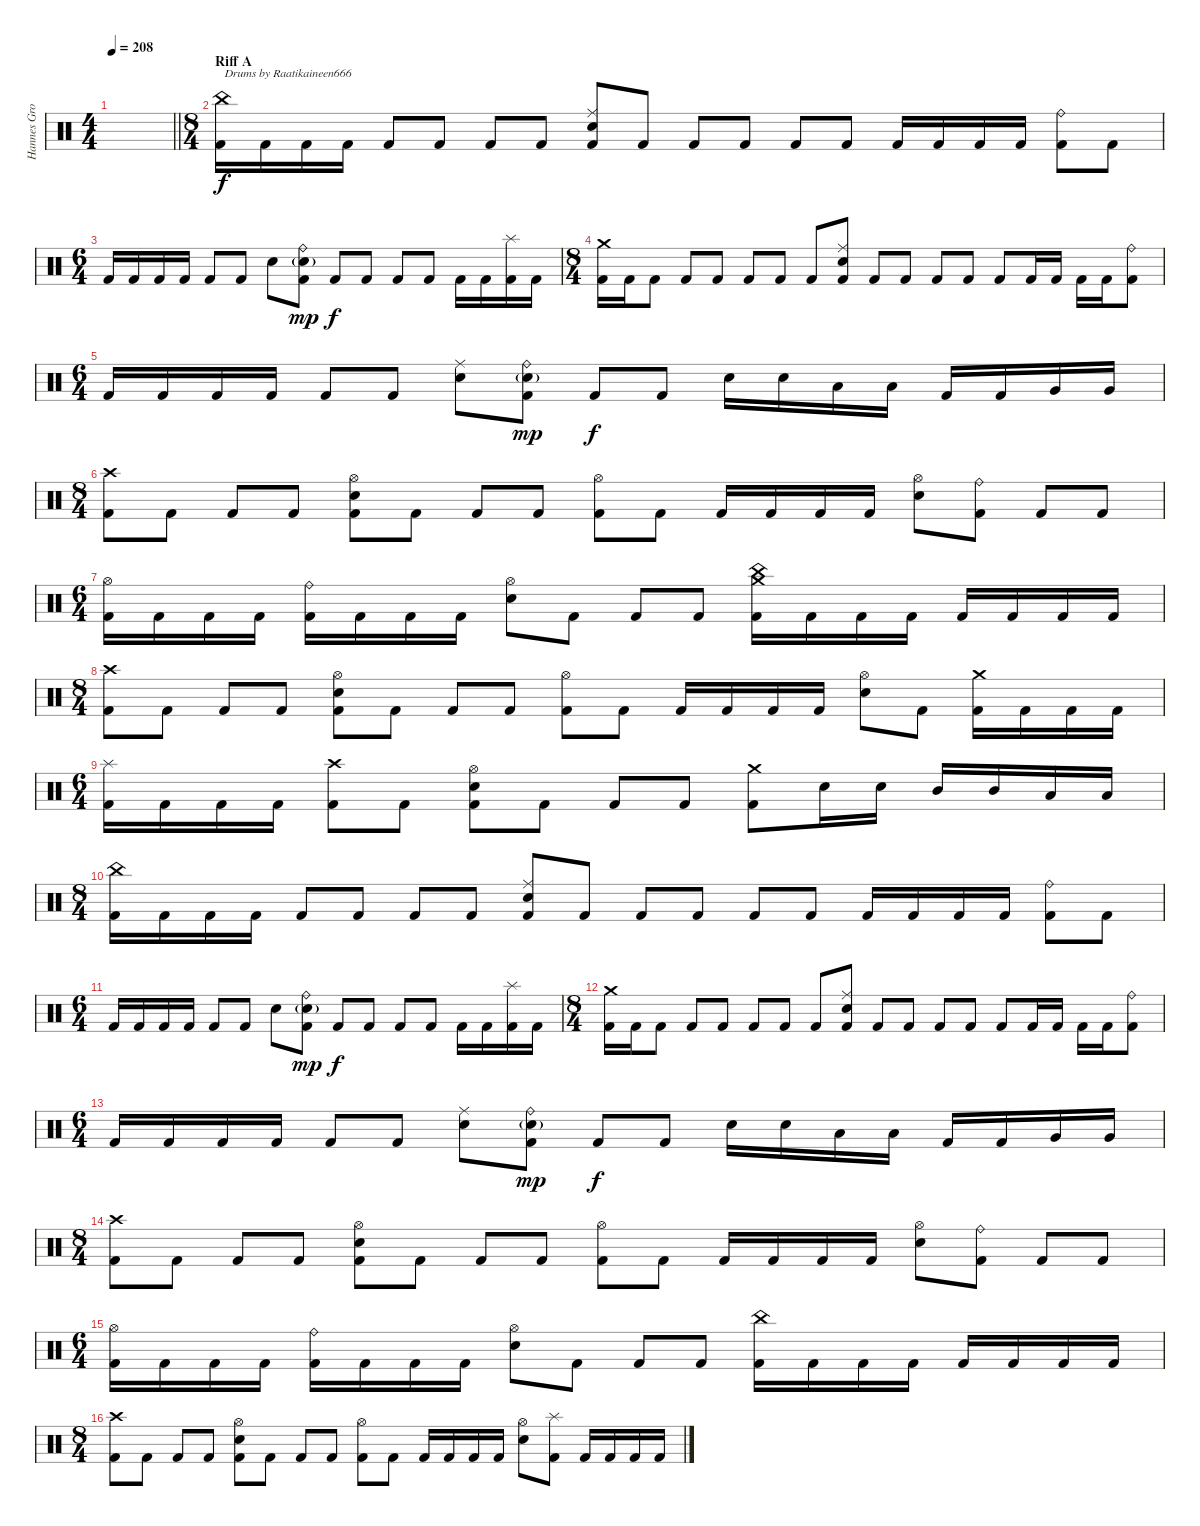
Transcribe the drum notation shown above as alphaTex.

\track ("Hannes Grossmann" "Hannes Gro") {instrument percussion}
\staff {score}
\articulation defaults
\ts (4 4)
\tempo 208
\clef neutral
\barLineRight lightlight
\ks c
|
\ts (8 4)
\section ("" "Riff A")
("China (hit)" "Kick (hit) 2").16{txt "Drums by Raatikaineen666"} "Kick (hit) 2".16 "Kick (hit) 2".16 "Kick (hit) 2".16 "Kick (hit) 2".8 "Kick (hit) 2".8 "Kick (hit) 2".8 "Kick (hit) 2".8 ("Ride (middle)" "Electric Snare (hit)" "Kick (hit) 2").8 "Kick (hit) 2".8 "Kick (hit) 2".8 "Kick (hit) 2".8 "Kick (hit) 2".8 "Kick (hit) 2".8 "Kick (hit) 2".16 "Kick (hit) 2".16 "Kick (hit) 2".16 "Kick (hit) 2".16 ("Ride (bell)" "Kick (hit) 2").8 "Kick (hit) 2".8 |
\ts (6 4)
"Kick (hit) 2".16 "Kick (hit) 2".16 "Kick (hit) 2".16 "Kick (hit) 2".16 "Kick (hit) 2".8 "Kick (hit) 2".8 "Electric Snare (hit)".8 ("Ride (bell)" "Electric Snare (hit)"{g} "Kick (hit) 2").8{dy mp} "Kick (hit) 2".8{dy f} "Kick (hit) 2".8 "Kick (hit) 2".8 "Kick (hit) 2".8 "Kick (hit) 2".16 "Kick (hit) 2".16 ("Splash (hit)" "Kick (hit) 2").16 "Kick (hit) 2".16 |
\ts (8 4)
("Crash medium (hit)" "Kick (hit) 2").16 "Kick (hit) 2".16 "Kick (hit) 2".8 "Kick (hit) 2".8 "Kick (hit) 2".8 "Kick (hit) 2".8 "Kick (hit) 2".8 "Kick (hit) 2".8 ("Ride (middle)" "Electric Snare (hit)" "Kick (hit) 2").8 "Kick (hit) 2".8 "Kick (hit) 2".8 "Kick (hit) 2".8 "Kick (hit) 2".8 "Kick (hit) 2".8 "Kick (hit) 2".16 "Kick (hit) 2".16 "Kick (hit) 2".16 "Kick (hit) 2".16 ("Ride (bell)" "Kick (hit) 2").8 |
\ts (6 4)
"Kick (hit) 2".16 "Kick (hit) 2".16 "Kick (hit) 2".16 "Kick (hit) 2".16 "Kick (hit) 2".8 "Kick (hit) 2".8 ("Ride (middle)" "Electric Snare (hit)").8 ("Ride (bell)" "Electric Snare (hit)"{g} "Kick (hit) 2").8{dy mp} "Kick (hit) 2".8{dy f} "Kick (hit) 2".8 "Electric Snare (hit)".16 "Electric Snare (hit)".16 "Low Tom (hit)".16 "Low Tom (hit)".16 "Kick (hit) 2".16 "Kick (hit) 2".16 "Very Low Tom (hit)".16 "Very Low Tom (hit)".16 |
\ts (8 4)
("Crash high (hit)" "Kick (hit) 2").8 "Kick (hit) 2".8 "Kick (hit) 2".8 "Kick (hit) 2".8 ("Hi-Hat (open)" "Electric Snare (hit)" "Kick (hit) 2").8 "Kick (hit) 2".8 "Kick (hit) 2".8 "Kick (hit) 2".8 ("Hi-Hat (open)" "Kick (hit) 2").8 "Kick (hit) 2".8 "Kick (hit) 2".16 "Kick (hit) 2".16 "Kick (hit) 2".16 "Kick (hit) 2".16 ("Hi-Hat (open)" "Electric Snare (hit)").8 ("Ride (bell)" "Kick (hit) 2").8 "Kick (hit) 2".8 "Kick (hit) 2".8 |
\ts (6 4)
("Hi-Hat (open)" "Kick (hit) 2").16 "Kick (hit) 2".16 "Kick (hit) 2".16 "Kick (hit) 2".16 ("Ride (bell)" "Kick (hit) 2").16 "Kick (hit) 2".16 "Kick (hit) 2".16 "Kick (hit) 2".16 ("Hi-Hat (open)" "Electric Snare (hit)").8 "Kick (hit) 2".8 "Kick (hit) 2".8 "Kick (hit) 2".8 ("China (hit)" "Crash medium (hit)" "Kick (hit) 2").16 "Kick (hit) 2".16 "Kick (hit) 2".16 "Kick (hit) 2".16 "Kick (hit) 2".16 "Kick (hit) 2".16 "Kick (hit) 2".16 "Kick (hit) 2".16 |
\ts (8 4)
("Crash high (hit)" "Kick (hit) 2").8 "Kick (hit) 2".8 "Kick (hit) 2".8 "Kick (hit) 2".8 ("Hi-Hat (open)" "Electric Snare (hit)" "Kick (hit) 2").8 "Kick (hit) 2".8 "Kick (hit) 2".8 "Kick (hit) 2".8 ("Hi-Hat (open)" "Kick (hit) 2").8 "Kick (hit) 2".8 "Kick (hit) 2".16 "Kick (hit) 2".16 "Kick (hit) 2".16 "Kick (hit) 2".16 ("Hi-Hat (open)" "Electric Snare (hit)").8 "Kick (hit) 2".8 ("Crash medium (hit)" "Kick (hit) 2").16 "Kick (hit) 2".16 "Kick (hit) 2".16 "Kick (hit) 2".16 |
\ts (6 4)
("Splash (hit)" "Kick (hit) 2").16 "Kick (hit) 2".16 "Kick (hit) 2".16 "Kick (hit) 2".16 ("Crash high (hit)" "Kick (hit) 2").8 "Kick (hit) 2".8 ("Hi-Hat (open)" "Electric Snare (hit)" "Kick (hit) 2").8 "Kick (hit) 2".8 "Kick (hit) 2".8 "Kick (hit) 2".8 ("Crash medium (hit)" "Kick (hit) 2").8 "Electric Snare (hit)".16 "Electric Snare (hit)".16 "Mid Tom (hit)".16 "Mid Tom (hit)".16 "Low Tom (hit)".16 "Low Tom (hit)".16 |
\ts (8 4)
("China (hit)" "Kick (hit) 2").16 "Kick (hit) 2".16 "Kick (hit) 2".16 "Kick (hit) 2".16 "Kick (hit) 2".8 "Kick (hit) 2".8 "Kick (hit) 2".8 "Kick (hit) 2".8 ("Ride (middle)" "Electric Snare (hit)" "Kick (hit) 2").8 "Kick (hit) 2".8 "Kick (hit) 2".8 "Kick (hit) 2".8 "Kick (hit) 2".8 "Kick (hit) 2".8 "Kick (hit) 2".16 "Kick (hit) 2".16 "Kick (hit) 2".16 "Kick (hit) 2".16 ("Ride (bell)" "Kick (hit) 2").8 "Kick (hit) 2".8 |
\ts (6 4)
"Kick (hit) 2".16 "Kick (hit) 2".16 "Kick (hit) 2".16 "Kick (hit) 2".16 "Kick (hit) 2".8 "Kick (hit) 2".8 "Electric Snare (hit)".8 ("Ride (bell)" "Electric Snare (hit)"{g} "Kick (hit) 2").8{dy mp} "Kick (hit) 2".8{dy f} "Kick (hit) 2".8 "Kick (hit) 2".8 "Kick (hit) 2".8 "Kick (hit) 2".16 "Kick (hit) 2".16 ("Splash (hit)" "Kick (hit) 2").16 "Kick (hit) 2".16 |
\ts (8 4)
("Crash medium (hit)" "Kick (hit) 2").16 "Kick (hit) 2".16 "Kick (hit) 2".8 "Kick (hit) 2".8 "Kick (hit) 2".8 "Kick (hit) 2".8 "Kick (hit) 2".8 "Kick (hit) 2".8 ("Ride (middle)" "Electric Snare (hit)" "Kick (hit) 2").8 "Kick (hit) 2".8 "Kick (hit) 2".8 "Kick (hit) 2".8 "Kick (hit) 2".8 "Kick (hit) 2".8 "Kick (hit) 2".16 "Kick (hit) 2".16 "Kick (hit) 2".16 "Kick (hit) 2".16 ("Ride (bell)" "Kick (hit) 2").8 |
\ts (6 4)
"Kick (hit) 2".16 "Kick (hit) 2".16 "Kick (hit) 2".16 "Kick (hit) 2".16 "Kick (hit) 2".8 "Kick (hit) 2".8 ("Ride (middle)" "Electric Snare (hit)").8 ("Ride (bell)" "Electric Snare (hit)"{g} "Kick (hit) 2").8{dy mp} "Kick (hit) 2".8{dy f} "Kick (hit) 2".8 "Electric Snare (hit)".16 "Electric Snare (hit)".16 "Low Tom (hit)".16 "Low Tom (hit)".16 "Kick (hit) 2".16 "Kick (hit) 2".16 "Very Low Tom (hit)".16 "Very Low Tom (hit)".16 |
\ts (8 4)
("Crash high (hit)" "Kick (hit) 2").8 "Kick (hit) 2".8 "Kick (hit) 2".8 "Kick (hit) 2".8 ("Hi-Hat (open)" "Electric Snare (hit)" "Kick (hit) 2").8 "Kick (hit) 2".8 "Kick (hit) 2".8 "Kick (hit) 2".8 ("Hi-Hat (open)" "Kick (hit) 2").8 "Kick (hit) 2".8 "Kick (hit) 2".16 "Kick (hit) 2".16 "Kick (hit) 2".16 "Kick (hit) 2".16 ("Hi-Hat (open)" "Electric Snare (hit)").8 ("Ride (bell)" "Kick (hit) 2").8 "Kick (hit) 2".8 "Kick (hit) 2".8 |
\ts (6 4)
("Hi-Hat (open)" "Kick (hit) 2").16 "Kick (hit) 2".16 "Kick (hit) 2".16 "Kick (hit) 2".16 ("Ride (bell)" "Kick (hit) 2").16 "Kick (hit) 2".16 "Kick (hit) 2".16 "Kick (hit) 2".16 ("Hi-Hat (open)" "Electric Snare (hit)").8 "Kick (hit) 2".8 "Kick (hit) 2".8 "Kick (hit) 2".8 ("China (hit)" "Kick (hit) 2").16 "Kick (hit) 2".16 "Kick (hit) 2".16 "Kick (hit) 2".16 "Kick (hit) 2".16 "Kick (hit) 2".16 "Kick (hit) 2".16 "Kick (hit) 2".16 |
\ts (8 4)
("Crash high (hit)" "Kick (hit) 2").8 "Kick (hit) 2".8 "Kick (hit) 2".8 "Kick (hit) 2".8 ("Hi-Hat (open)" "Electric Snare (hit)" "Kick (hit) 2").8 "Kick (hit) 2".8 "Kick (hit) 2".8 "Kick (hit) 2".8 ("Hi-Hat (open)" "Kick (hit) 2").8 "Kick (hit) 2".8 "Kick (hit) 2".16 "Kick (hit) 2".16 "Kick (hit) 2".16 "Kick (hit) 2".16 ("Hi-Hat (open)" "Electric Snare (hit)").8 ("Splash (hit)" "Kick (hit) 2").8 "Kick (hit) 2".16 "Kick (hit) 2".16 "Kick (hit) 2".16 "Kick (hit) 2".16
